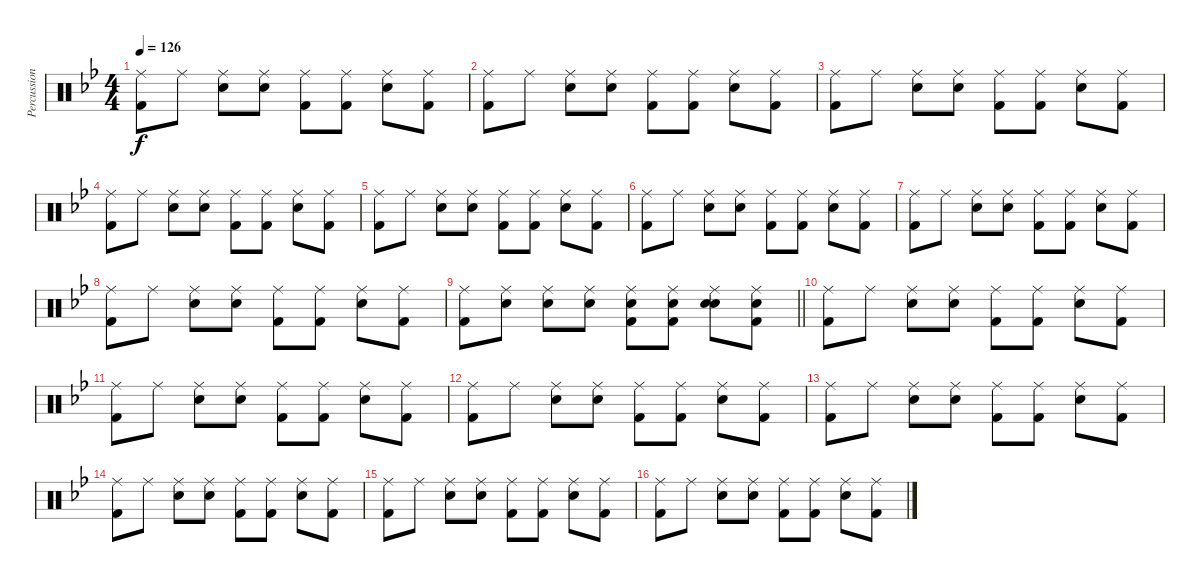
\track ("Percussion" "Percussion") {instrument percussion}
\staff {score}
\articulation defaults
\ts (4 4)
\tempo 126
\clef neutral
\ks bb
("Ride (middle)" "Kick (hit) 2").8{dy f} "Ride (middle)".8 ("Ride (middle)" "Snare (hit) 2").8 ("Ride (middle)" "Snare (hit) 2").8 ("Ride (middle)" "Kick (hit) 2").8 ("Ride (middle)" "Kick (hit) 2").8 ("Ride (middle)" "Snare (hit) 2").8 ("Ride (middle)" "Kick (hit) 2").8 |
("Ride (middle)" "Kick (hit) 2").8 "Ride (middle)".8 ("Ride (middle)" "Snare (hit) 2").8 ("Ride (middle)" "Snare (hit) 2").8 ("Ride (middle)" "Kick (hit) 2").8 ("Ride (middle)" "Kick (hit) 2").8 ("Ride (middle)" "Snare (hit) 2").8 ("Ride (middle)" "Kick (hit) 2").8 |
("Ride (middle)" "Kick (hit) 2").8 "Ride (middle)".8 ("Ride (middle)" "Snare (hit) 2").8 ("Ride (middle)" "Snare (hit) 2").8 ("Ride (middle)" "Kick (hit) 2").8 ("Ride (middle)" "Kick (hit) 2").8 ("Ride (middle)" "Snare (hit) 2").8 ("Ride (middle)" "Kick (hit) 2").8 |
("Ride (middle)" "Kick (hit) 2").8 "Ride (middle)".8 ("Ride (middle)" "Snare (hit) 2").8 ("Ride (middle)" "Snare (hit) 2").8 ("Ride (middle)" "Kick (hit) 2").8 ("Ride (middle)" "Kick (hit) 2").8 ("Ride (middle)" "Snare (hit) 2").8 ("Ride (middle)" "Kick (hit) 2").8 |
("Ride (middle)" "Kick (hit) 2").8 "Ride (middle)".8 ("Ride (middle)" "Snare (hit) 2").8 ("Ride (middle)" "Snare (hit) 2").8 ("Ride (middle)" "Kick (hit) 2").8 ("Ride (middle)" "Kick (hit) 2").8 ("Ride (middle)" "Snare (hit) 2").8 ("Ride (middle)" "Kick (hit) 2").8 |
("Ride (middle)" "Kick (hit) 2").8 "Ride (middle)".8 ("Ride (middle)" "Snare (hit) 2").8 ("Ride (middle)" "Snare (hit) 2").8 ("Ride (middle)" "Kick (hit) 2").8 ("Ride (middle)" "Kick (hit) 2").8 ("Ride (middle)" "Snare (hit) 2").8 ("Ride (middle)" "Kick (hit) 2").8 |
("Ride (middle)" "Kick (hit) 2").8 "Ride (middle)".8 ("Ride (middle)" "Snare (hit) 2").8 ("Ride (middle)" "Snare (hit) 2").8 ("Ride (middle)" "Kick (hit) 2").8 ("Ride (middle)" "Kick (hit) 2").8 ("Ride (middle)" "Snare (hit) 2").8 ("Ride (middle)" "Kick (hit) 2").8 |
("Ride (middle)" "Kick (hit) 2").8 "Ride (middle)".8 ("Ride (middle)" "Snare (hit) 2").8 ("Ride (middle)" "Snare (hit) 2").8 ("Ride (middle)" "Kick (hit) 2").8 ("Ride (middle)" "Kick (hit) 2").8 ("Ride (middle)" "Snare (hit) 2").8 ("Ride (middle)" "Kick (hit) 2").8 |
\barLineRight lightlight
("Ride (middle)" "Kick (hit) 2").8 ("Ride (middle)" "Snare (hit) 2").8 ("Ride (middle)" "Snare (hit) 2").8 ("Ride (middle)" "Snare (hit) 2").8 ("Ride (middle)" "Kick (hit) 2" "Snare (hit) 2").8 ("Ride (middle)" "Kick (hit) 2" "Snare (hit) 2").8 ("Ride (middle)" "Snare (hit) 2" "Snare (hit) 2").8 ("Ride (middle)" "Kick (hit) 2" "Snare (hit) 2").8 |
("Ride (middle)" "Kick (hit) 2").8 "Ride (middle)".8 ("Ride (middle)" "Snare (hit) 2").8 ("Ride (middle)" "Snare (hit) 2").8 ("Ride (middle)" "Kick (hit) 2").8 ("Ride (middle)" "Kick (hit) 2").8 ("Ride (middle)" "Snare (hit) 2").8 ("Ride (middle)" "Kick (hit) 2").8 |
("Ride (middle)" "Kick (hit) 2").8 "Ride (middle)".8 ("Ride (middle)" "Snare (hit) 2").8 ("Ride (middle)" "Snare (hit) 2").8 ("Ride (middle)" "Kick (hit) 2").8 ("Ride (middle)" "Kick (hit) 2").8 ("Ride (middle)" "Snare (hit) 2").8 ("Ride (middle)" "Kick (hit) 2").8 |
("Ride (middle)" "Kick (hit) 2").8 "Ride (middle)".8 ("Ride (middle)" "Snare (hit) 2").8 ("Ride (middle)" "Snare (hit) 2").8 ("Ride (middle)" "Kick (hit) 2").8 ("Ride (middle)" "Kick (hit) 2").8 ("Ride (middle)" "Snare (hit) 2").8 ("Ride (middle)" "Kick (hit) 2").8 |
("Ride (middle)" "Kick (hit) 2").8 "Ride (middle)".8 ("Ride (middle)" "Snare (hit) 2").8 ("Ride (middle)" "Snare (hit) 2").8 ("Ride (middle)" "Kick (hit) 2").8 ("Ride (middle)" "Kick (hit) 2").8 ("Ride (middle)" "Snare (hit) 2").8 ("Ride (middle)" "Kick (hit) 2").8 |
("Ride (middle)" "Kick (hit) 2").8 "Ride (middle)".8 ("Ride (middle)" "Snare (hit) 2").8 ("Ride (middle)" "Snare (hit) 2").8 ("Ride (middle)" "Kick (hit) 2").8 ("Ride (middle)" "Kick (hit) 2").8 ("Ride (middle)" "Snare (hit) 2").8 ("Ride (middle)" "Kick (hit) 2").8 |
("Ride (middle)" "Kick (hit) 2").8 "Ride (middle)".8 ("Ride (middle)" "Snare (hit) 2").8 ("Ride (middle)" "Snare (hit) 2").8 ("Ride (middle)" "Kick (hit) 2").8 ("Ride (middle)" "Kick (hit) 2").8 ("Ride (middle)" "Snare (hit) 2").8 ("Ride (middle)" "Kick (hit) 2").8 |
("Ride (middle)" "Kick (hit) 2").8 "Ride (middle)".8 ("Ride (middle)" "Snare (hit) 2").8 ("Ride (middle)" "Snare (hit) 2").8 ("Ride (middle)" "Kick (hit) 2").8 ("Ride (middle)" "Kick (hit) 2").8 ("Ride (middle)" "Snare (hit) 2").8 ("Ride (middle)" "Kick (hit) 2").8
